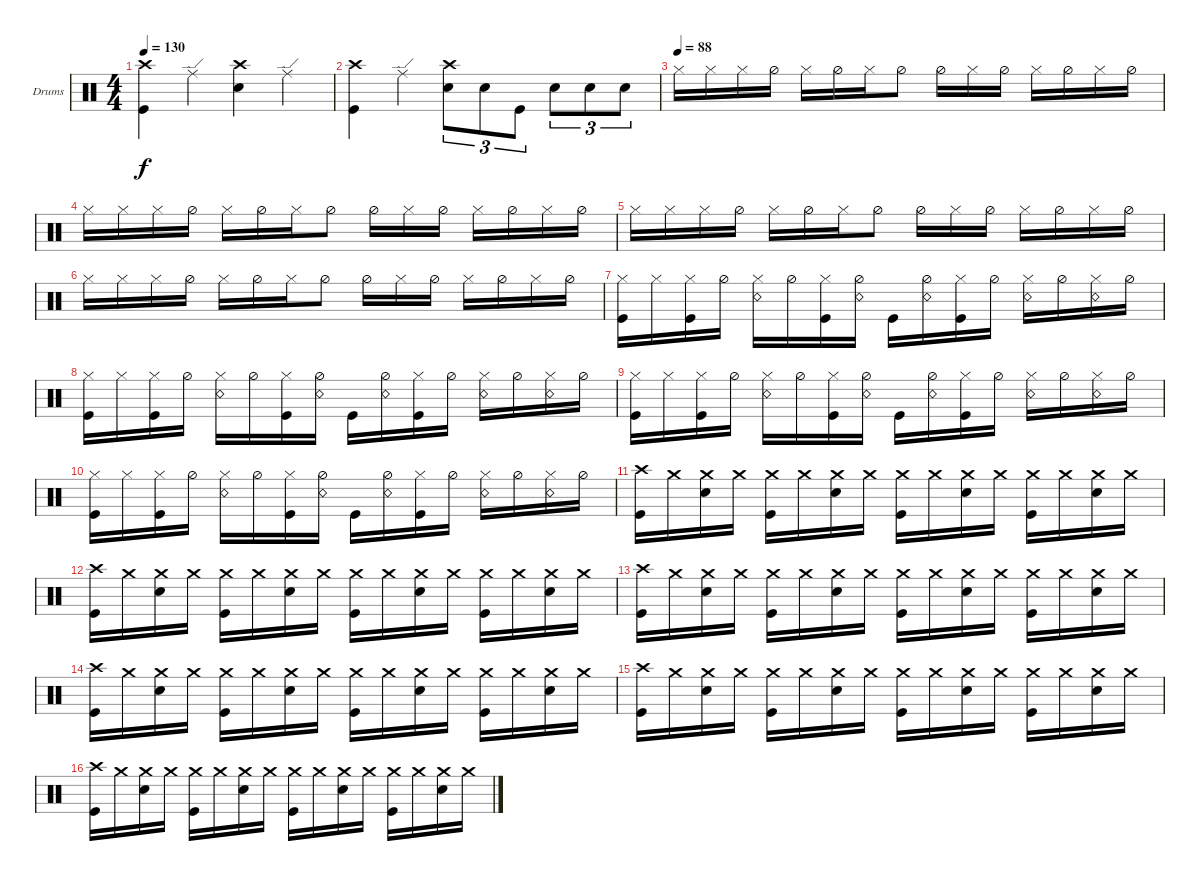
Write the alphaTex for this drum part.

\defaultSystemsLayout 4
\bracketExtendMode groupsimilarinstruments
\firstSystemTrackNameOrientation horizontal
\otherSystemsTrackNameOrientation horizontal
\track ("Drumkit" "Drums") {instrument percussion}
\staff {score}
\articulation defaults
\ts (4 4)
\tempo 130
\clef neutral
\ks c
("Kick (hit)" "Crash high (hit)").4{dy f} "Ride (edge)".4 ("Crash high (hit)" "Snare (hit) 2").4 "Ride (edge)".4 |
("Kick (hit)" "Crash high (hit)").4 "Ride (edge)".4 ("Snare (hit) 2" "Crash high (hit)").8{tu (3 2)} "Snare (hit) 2".8{tu (3 2)} "Kick (hit)".8{tu (3 2)} "Snare (hit) 2".8{tu (3 2)} "Snare (hit) 2".8{tu (3 2)} "Snare (hit) 2".8{tu (3 2)} |
\tempo (88)
"Hi-Hat (closed)".16 "Hi-Hat (closed)".16 "Hi-Hat (closed)".16 "Hi-Hat (half)".16 "Hi-Hat (closed)".16 "Hi-Hat (half)".16 "Hi-Hat (closed)".16 "Hi-Hat (half)".8 "Hi-Hat (half)".16 "Hi-Hat (closed)".16 "Hi-Hat (half)".16 "Hi-Hat (closed)".16 "Hi-Hat (half)".16 "Hi-Hat (closed)".16 "Hi-Hat (half)".16 |
"Hi-Hat (closed)".16 "Hi-Hat (closed)".16 "Hi-Hat (closed)".16 "Hi-Hat (half)".16 "Hi-Hat (closed)".16 "Hi-Hat (half)".16 "Hi-Hat (closed)".16 "Hi-Hat (half)".8 "Hi-Hat (half)".16 "Hi-Hat (closed)".16 "Hi-Hat (half)".16 "Hi-Hat (closed)".16 "Hi-Hat (half)".16 "Hi-Hat (closed)".16 "Hi-Hat (half)".16 |
"Hi-Hat (closed)".16 "Hi-Hat (closed)".16 "Hi-Hat (closed)".16 "Hi-Hat (half)".16 "Hi-Hat (closed)".16 "Hi-Hat (half)".16 "Hi-Hat (closed)".16 "Hi-Hat (half)".8 "Hi-Hat (half)".16 "Hi-Hat (closed)".16 "Hi-Hat (half)".16 "Hi-Hat (closed)".16 "Hi-Hat (half)".16 "Hi-Hat (closed)".16 "Hi-Hat (half)".16 |
"Hi-Hat (closed)".16 "Hi-Hat (closed)".16 "Hi-Hat (closed)".16 "Hi-Hat (half)".16 "Hi-Hat (closed)".16 "Hi-Hat (half)".16 "Hi-Hat (closed)".16 "Hi-Hat (half)".8 "Hi-Hat (half)".16 "Hi-Hat (closed)".16 "Hi-Hat (half)".16 "Hi-Hat (closed)".16 "Hi-Hat (half)".16 "Hi-Hat (closed)".16 "Hi-Hat (half)".16 |
("Hi-Hat (closed)" "Kick (hit)").16 "Hi-Hat (closed)".16 ("Hi-Hat (closed)" "Kick (hit)").16 "Hi-Hat (half)".16 ("Hi-Hat (closed)" "Snare (rim shot)").16 "Hi-Hat (half)".16 ("Hi-Hat (closed)" "Kick (hit)").16 ("Hi-Hat (half)" "Snare (rim shot)").16 "Kick (hit)".16 ("Hi-Hat (half)" "Snare (rim shot)").16 ("Hi-Hat (closed)" "Kick (hit)").16 "Hi-Hat (half)".16 ("Hi-Hat (closed)" "Snare (rim shot)").16 "Hi-Hat (half)".16 ("Hi-Hat (closed)" "Snare (rim shot)").16 "Hi-Hat (half)".16 |
("Hi-Hat (closed)" "Kick (hit)").16 "Hi-Hat (closed)".16 ("Hi-Hat (closed)" "Kick (hit)").16 "Hi-Hat (half)".16 ("Hi-Hat (closed)" "Snare (rim shot)").16 "Hi-Hat (half)".16 ("Hi-Hat (closed)" "Kick (hit)").16 ("Hi-Hat (half)" "Snare (rim shot)").16 "Kick (hit)".16 ("Hi-Hat (half)" "Snare (rim shot)").16 ("Hi-Hat (closed)" "Kick (hit)").16 "Hi-Hat (half)".16 ("Hi-Hat (closed)" "Snare (rim shot)").16 "Hi-Hat (half)".16 ("Hi-Hat (closed)" "Snare (rim shot)").16 "Hi-Hat (half)".16 |
("Hi-Hat (closed)" "Kick (hit)").16 "Hi-Hat (closed)".16 ("Hi-Hat (closed)" "Kick (hit)").16 "Hi-Hat (half)".16 ("Hi-Hat (closed)" "Snare (rim shot)").16 "Hi-Hat (half)".16 ("Hi-Hat (closed)" "Kick (hit)").16 ("Hi-Hat (half)" "Snare (rim shot)").16 "Kick (hit)".16 ("Hi-Hat (half)" "Snare (rim shot)").16 ("Hi-Hat (closed)" "Kick (hit)").16 "Hi-Hat (half)".16 ("Hi-Hat (closed)" "Snare (rim shot)").16 "Hi-Hat (half)".16 ("Hi-Hat (closed)" "Snare (rim shot)").16 "Hi-Hat (half)".16 |
("Hi-Hat (closed)" "Kick (hit)").16 "Hi-Hat (closed)".16 ("Hi-Hat (closed)" "Kick (hit)").16 "Hi-Hat (half)".16 ("Hi-Hat (closed)" "Snare (rim shot)").16 "Hi-Hat (half)".16 ("Hi-Hat (closed)" "Kick (hit)").16 ("Hi-Hat (half)" "Snare (rim shot)").16 "Kick (hit)".16 ("Hi-Hat (half)" "Snare (rim shot)").16 ("Hi-Hat (closed)" "Kick (hit)").16 "Hi-Hat (half)".16 ("Hi-Hat (closed)" "Snare (rim shot)").16 "Hi-Hat (half)".16 ("Hi-Hat (closed)" "Snare (rim shot)").16 "Hi-Hat (half)".16 |
("Kick (hit)" "Crash high (hit)").16 "Crash medium (hit)".16 ("Crash medium (hit)" "Snare (hit) 2").16 "Crash medium (hit)".16 ("Crash medium (hit)" "Kick (hit)").16 "Crash medium (hit)".16 ("Snare (hit) 2" "Crash medium (hit)").16 "Crash medium (hit)".16 ("Kick (hit)" "Crash medium (hit)").16 "Crash medium (hit)".16 ("Crash medium (hit)" "Snare (hit) 2").16 "Crash medium (hit)".16 ("Crash medium (hit)" "Kick (hit)").16 "Crash medium (hit)".16 ("Snare (hit) 2" "Crash medium (hit)").16 "Crash medium (hit)".16 |
("Kick (hit)" "Crash high (hit)").16 "Crash medium (hit)".16 ("Crash medium (hit)" "Snare (hit) 2").16 "Crash medium (hit)".16 ("Crash medium (hit)" "Kick (hit)").16 "Crash medium (hit)".16 ("Snare (hit) 2" "Crash medium (hit)").16 "Crash medium (hit)".16 ("Kick (hit)" "Crash medium (hit)").16 "Crash medium (hit)".16 ("Crash medium (hit)" "Snare (hit) 2").16 "Crash medium (hit)".16 ("Crash medium (hit)" "Kick (hit)").16 "Crash medium (hit)".16 ("Snare (hit) 2" "Crash medium (hit)").16 "Crash medium (hit)".16 |
("Kick (hit)" "Crash high (hit)").16 "Crash medium (hit)".16 ("Crash medium (hit)" "Snare (hit) 2").16 "Crash medium (hit)".16 ("Crash medium (hit)" "Kick (hit)").16 "Crash medium (hit)".16 ("Snare (hit) 2" "Crash medium (hit)").16 "Crash medium (hit)".16 ("Kick (hit)" "Crash medium (hit)").16 "Crash medium (hit)".16 ("Crash medium (hit)" "Snare (hit) 2").16 "Crash medium (hit)".16 ("Crash medium (hit)" "Kick (hit)").16 "Crash medium (hit)".16 ("Snare (hit) 2" "Crash medium (hit)").16 "Crash medium (hit)".16 |
("Kick (hit)" "Crash high (hit)").16 "Crash medium (hit)".16 ("Crash medium (hit)" "Snare (hit) 2").16 "Crash medium (hit)".16 ("Crash medium (hit)" "Kick (hit)").16 "Crash medium (hit)".16 ("Snare (hit) 2" "Crash medium (hit)").16 "Crash medium (hit)".16 ("Kick (hit)" "Crash medium (hit)").16 "Crash medium (hit)".16 ("Crash medium (hit)" "Snare (hit) 2").16 "Crash medium (hit)".16 ("Crash medium (hit)" "Kick (hit)").16 "Crash medium (hit)".16 ("Snare (hit) 2" "Crash medium (hit)").16 "Crash medium (hit)".16 |
("Kick (hit)" "Crash high (hit)").16 "Crash medium (hit)".16 ("Crash medium (hit)" "Snare (hit) 2").16 "Crash medium (hit)".16 ("Crash medium (hit)" "Kick (hit)").16 "Crash medium (hit)".16 ("Snare (hit) 2" "Crash medium (hit)").16 "Crash medium (hit)".16 ("Kick (hit)" "Crash medium (hit)").16 "Crash medium (hit)".16 ("Crash medium (hit)" "Snare (hit) 2").16 "Crash medium (hit)".16 ("Crash medium (hit)" "Kick (hit)").16 "Crash medium (hit)".16 ("Snare (hit) 2" "Crash medium (hit)").16 "Crash medium (hit)".16 |
("Kick (hit)" "Crash high (hit)").16 "Crash medium (hit)".16 ("Crash medium (hit)" "Snare (hit) 2").16 "Crash medium (hit)".16 ("Crash medium (hit)" "Kick (hit)").16 "Crash medium (hit)".16 ("Snare (hit) 2" "Crash medium (hit)").16 "Crash medium (hit)".16 ("Kick (hit)" "Crash medium (hit)").16 "Crash medium (hit)".16 ("Crash medium (hit)" "Snare (hit) 2").16 "Crash medium (hit)".16 ("Crash medium (hit)" "Kick (hit)").16 "Crash medium (hit)".16 ("Snare (hit) 2" "Crash medium (hit)").16 "Crash medium (hit)".16
